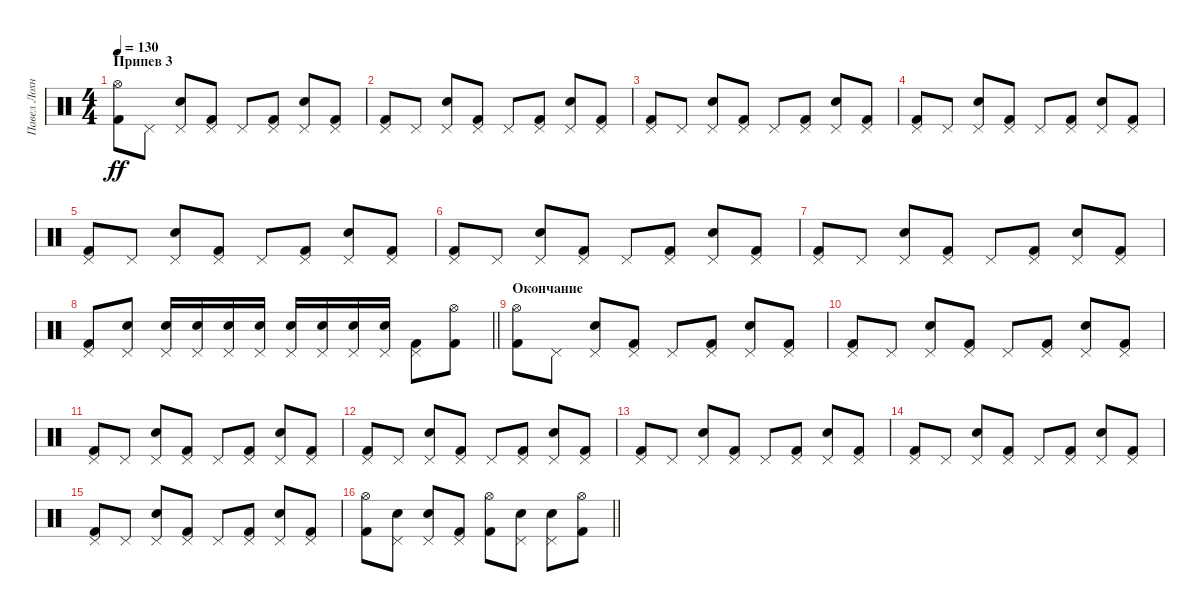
\track ("Павел Лохнин" "Павел Лохн") {instrument percussion}
\staff {score}
\articulation defaults
\ts (4 4)
\section ("" "Припев 3")
\tempo 130
\clef neutral
\ks c
("Hi-Hat (open)" "Kick (hit) 2").8{dy ff} "Pedal Hi-Hat (hit)".8 ("Pedal Hi-Hat (hit)" "Electric Snare (hit)").8 ("Pedal Hi-Hat (hit)" "Kick (hit) 2").8 "Pedal Hi-Hat (hit)".8 ("Pedal Hi-Hat (hit)" "Kick (hit) 2").8 ("Pedal Hi-Hat (hit)" "Electric Snare (hit)").8 ("Pedal Hi-Hat (hit)" "Kick (hit) 2").8 |
("Pedal Hi-Hat (hit)" "Kick (hit) 2").8 "Pedal Hi-Hat (hit)".8 ("Pedal Hi-Hat (hit)" "Electric Snare (hit)").8 ("Pedal Hi-Hat (hit)" "Kick (hit) 2").8 "Pedal Hi-Hat (hit)".8 ("Pedal Hi-Hat (hit)" "Kick (hit) 2").8 ("Pedal Hi-Hat (hit)" "Electric Snare (hit)").8 ("Pedal Hi-Hat (hit)" "Kick (hit) 2").8 |
("Pedal Hi-Hat (hit)" "Kick (hit) 2").8 "Pedal Hi-Hat (hit)".8 ("Pedal Hi-Hat (hit)" "Electric Snare (hit)").8 ("Pedal Hi-Hat (hit)" "Kick (hit) 2").8 "Pedal Hi-Hat (hit)".8 ("Pedal Hi-Hat (hit)" "Kick (hit) 2").8 ("Pedal Hi-Hat (hit)" "Electric Snare (hit)").8 ("Pedal Hi-Hat (hit)" "Kick (hit) 2").8 |
("Pedal Hi-Hat (hit)" "Kick (hit) 2").8 "Pedal Hi-Hat (hit)".8 ("Pedal Hi-Hat (hit)" "Electric Snare (hit)").8 ("Pedal Hi-Hat (hit)" "Kick (hit) 2").8 "Pedal Hi-Hat (hit)".8 ("Pedal Hi-Hat (hit)" "Kick (hit) 2").8 ("Pedal Hi-Hat (hit)" "Electric Snare (hit)").8 ("Pedal Hi-Hat (hit)" "Kick (hit) 2").8 |
("Pedal Hi-Hat (hit)" "Kick (hit) 2").8 "Pedal Hi-Hat (hit)".8 ("Pedal Hi-Hat (hit)" "Electric Snare (hit)").8 ("Pedal Hi-Hat (hit)" "Kick (hit) 2").8 "Pedal Hi-Hat (hit)".8 ("Pedal Hi-Hat (hit)" "Kick (hit) 2").8 ("Pedal Hi-Hat (hit)" "Electric Snare (hit)").8 ("Pedal Hi-Hat (hit)" "Kick (hit) 2").8 |
("Pedal Hi-Hat (hit)" "Kick (hit) 2").8 "Pedal Hi-Hat (hit)".8 ("Pedal Hi-Hat (hit)" "Electric Snare (hit)").8 ("Pedal Hi-Hat (hit)" "Kick (hit) 2").8 "Pedal Hi-Hat (hit)".8 ("Pedal Hi-Hat (hit)" "Kick (hit) 2").8 ("Pedal Hi-Hat (hit)" "Electric Snare (hit)").8 ("Pedal Hi-Hat (hit)" "Kick (hit) 2").8 |
("Pedal Hi-Hat (hit)" "Kick (hit) 2").8 "Pedal Hi-Hat (hit)".8 ("Pedal Hi-Hat (hit)" "Electric Snare (hit)").8 ("Pedal Hi-Hat (hit)" "Kick (hit) 2").8 "Pedal Hi-Hat (hit)".8 ("Pedal Hi-Hat (hit)" "Kick (hit) 2").8 ("Pedal Hi-Hat (hit)" "Electric Snare (hit)").8 ("Pedal Hi-Hat (hit)" "Kick (hit) 2").8 |
\barLineRight lightlight
("Pedal Hi-Hat (hit)" "Kick (hit) 2").8 ("Pedal Hi-Hat (hit)" "Electric Snare (hit)").8 ("Pedal Hi-Hat (hit)" "Electric Snare (hit)").16 ("Pedal Hi-Hat (hit)" "Electric Snare (hit)").16 ("Pedal Hi-Hat (hit)" "Electric Snare (hit)").16 ("Pedal Hi-Hat (hit)" "Electric Snare (hit)").16 ("Pedal Hi-Hat (hit)" "Electric Snare (hit)").16 ("Pedal Hi-Hat (hit)" "Electric Snare (hit)").16 ("Pedal Hi-Hat (hit)" "Electric Snare (hit)").16 ("Pedal Hi-Hat (hit)" "Electric Snare (hit)").16 ("Pedal Hi-Hat (hit)" "Kick (hit) 2").8 ("Hi-Hat (open)" "Kick (hit) 2").8 |
\section ("" "Окончание")
("Hi-Hat (open)" "Kick (hit) 2").8 "Pedal Hi-Hat (hit)".8 ("Pedal Hi-Hat (hit)" "Electric Snare (hit)").8 ("Pedal Hi-Hat (hit)" "Kick (hit) 2").8 "Pedal Hi-Hat (hit)".8 ("Pedal Hi-Hat (hit)" "Kick (hit) 2").8 ("Pedal Hi-Hat (hit)" "Electric Snare (hit)").8 ("Pedal Hi-Hat (hit)" "Kick (hit) 2").8 |
("Pedal Hi-Hat (hit)" "Kick (hit) 2").8 "Pedal Hi-Hat (hit)".8 ("Pedal Hi-Hat (hit)" "Electric Snare (hit)").8 ("Pedal Hi-Hat (hit)" "Kick (hit) 2").8 "Pedal Hi-Hat (hit)".8 ("Pedal Hi-Hat (hit)" "Kick (hit) 2").8 ("Pedal Hi-Hat (hit)" "Electric Snare (hit)").8 ("Pedal Hi-Hat (hit)" "Kick (hit) 2").8 |
("Pedal Hi-Hat (hit)" "Kick (hit) 2").8 "Pedal Hi-Hat (hit)".8 ("Pedal Hi-Hat (hit)" "Electric Snare (hit)").8 ("Pedal Hi-Hat (hit)" "Kick (hit) 2").8 "Pedal Hi-Hat (hit)".8 ("Pedal Hi-Hat (hit)" "Kick (hit) 2").8 ("Pedal Hi-Hat (hit)" "Electric Snare (hit)").8 ("Pedal Hi-Hat (hit)" "Kick (hit) 2").8 |
("Pedal Hi-Hat (hit)" "Kick (hit) 2").8 "Pedal Hi-Hat (hit)".8 ("Pedal Hi-Hat (hit)" "Electric Snare (hit)").8 ("Pedal Hi-Hat (hit)" "Kick (hit) 2").8 "Pedal Hi-Hat (hit)".8 ("Pedal Hi-Hat (hit)" "Kick (hit) 2").8 ("Pedal Hi-Hat (hit)" "Electric Snare (hit)").8 ("Pedal Hi-Hat (hit)" "Kick (hit) 2").8 |
("Pedal Hi-Hat (hit)" "Kick (hit) 2").8 "Pedal Hi-Hat (hit)".8 ("Pedal Hi-Hat (hit)" "Electric Snare (hit)").8 ("Pedal Hi-Hat (hit)" "Kick (hit) 2").8 "Pedal Hi-Hat (hit)".8 ("Pedal Hi-Hat (hit)" "Kick (hit) 2").8 ("Pedal Hi-Hat (hit)" "Electric Snare (hit)").8 ("Pedal Hi-Hat (hit)" "Kick (hit) 2").8 |
("Pedal Hi-Hat (hit)" "Kick (hit) 2").8 "Pedal Hi-Hat (hit)".8 ("Pedal Hi-Hat (hit)" "Electric Snare (hit)").8 ("Pedal Hi-Hat (hit)" "Kick (hit) 2").8 "Pedal Hi-Hat (hit)".8 ("Pedal Hi-Hat (hit)" "Kick (hit) 2").8 ("Pedal Hi-Hat (hit)" "Electric Snare (hit)").8 ("Pedal Hi-Hat (hit)" "Kick (hit) 2").8 |
("Pedal Hi-Hat (hit)" "Kick (hit) 2").8 "Pedal Hi-Hat (hit)".8 ("Pedal Hi-Hat (hit)" "Electric Snare (hit)").8 ("Pedal Hi-Hat (hit)" "Kick (hit) 2").8 "Pedal Hi-Hat (hit)".8 ("Pedal Hi-Hat (hit)" "Kick (hit) 2").8 ("Pedal Hi-Hat (hit)" "Electric Snare (hit)").8 ("Pedal Hi-Hat (hit)" "Kick (hit) 2").8 |
\barLineRight lightlight
("Hi-Hat (open)" "Kick (hit) 2").8 ("Pedal Hi-Hat (hit)" "Electric Snare (hit)").8 ("Pedal Hi-Hat (hit)" "Electric Snare (hit)").8 ("Pedal Hi-Hat (hit)" "Kick (hit) 2").8 ("Hi-Hat (open)" "Kick (hit) 2").8 ("Pedal Hi-Hat (hit)" "Electric Snare (hit)").8 ("Pedal Hi-Hat (hit)" "Electric Snare (hit)").8 ("Hi-Hat (open)" "Kick (hit) 2").8
